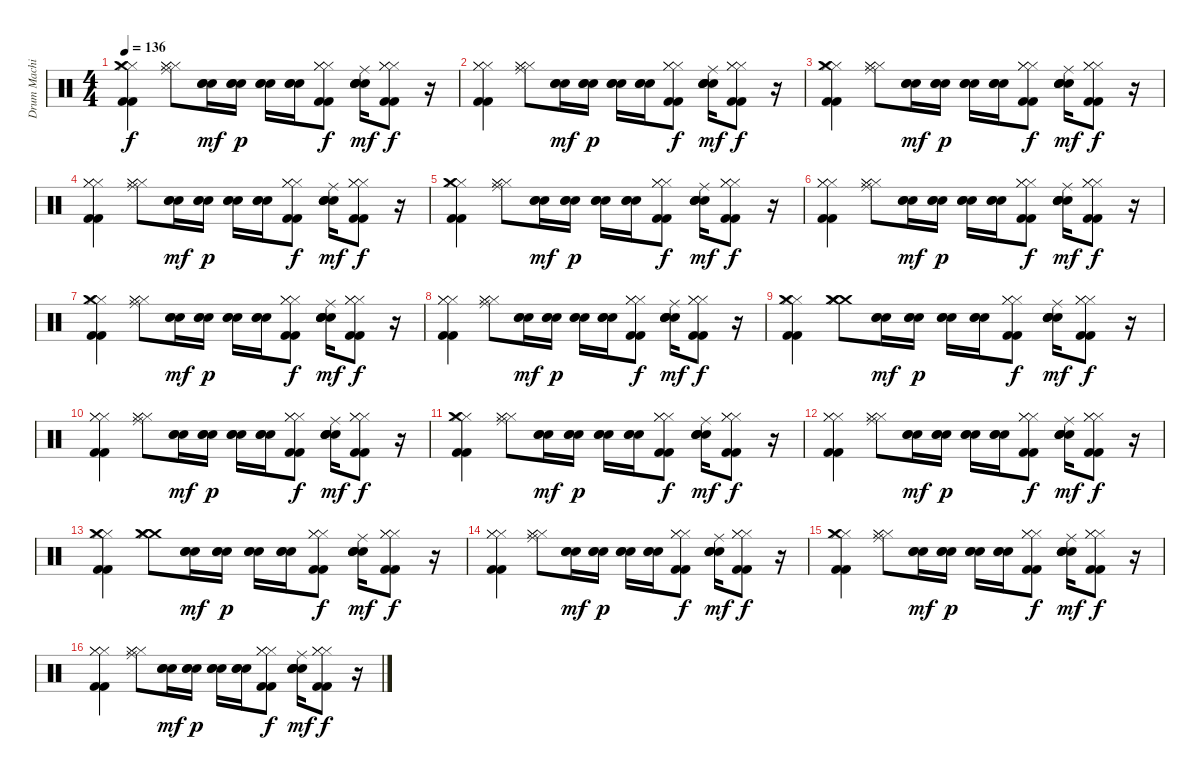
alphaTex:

\track ("Drum Machine" "Drum Machi") {instrument percussion}
\staff {score}
\articulation defaults
\ts (4 4)
\tempo 136
\clef neutral
\ks c
("Hi-Hat (closed)" "Kick (hit) 2" "Crash medium (hit)" "Kick (hit) 2" "Hi-Hat (closed)").4{dy f} ("Ride (middle)" "Hi-Hat (closed)" "Hi-Hat (closed)" "Hi-Hat (closed)").8 ("Electric Snare (hit)" "Electric Snare (hit)" "Electric Snare (hit)").16{dy mf} ("Snare (hit) 2" "Snare (hit) 2" "Snare (hit) 2").16{dy p} ("Electric Snare (hit)" "Electric Snare (hit)" "Electric Snare (hit)").16 ("Snare (hit) 2" "Snare (hit) 2" "Snare (hit) 2").16 ("Hi-Hat (closed)" "Kick (hit) 2" "Hi-Hat (closed)" "Kick (hit) 2" "Hi-Hat (closed)").8{dy f} ("Ride (middle)" "Electric Snare (hit)" "Snare (hit) 2" "Electric Snare (hit)" "Snare (hit) 2").16{dy mf} ("Hi-Hat (closed)" "Kick (hit) 2" "Hi-Hat (closed)" "Kick (hit) 2" "Hi-Hat (closed)").8{dy f} r.16 |
("Hi-Hat (closed)" "Kick (hit) 2" "Hi-Hat (closed)" "Kick (hit) 2" "Hi-Hat (closed)").4 ("Ride (middle)" "Hi-Hat (closed)" "Hi-Hat (closed)" "Hi-Hat (closed)").8 ("Electric Snare (hit)" "Electric Snare (hit)" "Electric Snare (hit)").16{dy mf} ("Snare (hit) 2" "Snare (hit) 2" "Snare (hit) 2").16{dy p} ("Electric Snare (hit)" "Electric Snare (hit)" "Electric Snare (hit)").16 ("Snare (hit) 2" "Snare (hit) 2" "Snare (hit) 2").16 ("Hi-Hat (closed)" "Kick (hit) 2" "Hi-Hat (closed)" "Kick (hit) 2" "Hi-Hat (closed)").8{dy f} ("Ride (middle)" "Electric Snare (hit)" "Snare (hit) 2" "Electric Snare (hit)" "Snare (hit) 2").16{dy mf} ("Hi-Hat (closed)" "Kick (hit) 2" "Hi-Hat (closed)" "Kick (hit) 2" "Hi-Hat (closed)").8{dy f} r.16 |
("Hi-Hat (closed)" "Kick (hit) 2" "Crash medium (hit)" "Kick (hit) 2" "Hi-Hat (closed)").4 ("Ride (middle)" "Hi-Hat (closed)" "Hi-Hat (closed)" "Hi-Hat (closed)").8 ("Electric Snare (hit)" "Electric Snare (hit)" "Electric Snare (hit)").16{dy mf} ("Snare (hit) 2" "Snare (hit) 2" "Snare (hit) 2").16{dy p} ("Electric Snare (hit)" "Electric Snare (hit)" "Electric Snare (hit)").16 ("Snare (hit) 2" "Snare (hit) 2" "Snare (hit) 2").16 ("Hi-Hat (closed)" "Kick (hit) 2" "Hi-Hat (closed)" "Kick (hit) 2" "Hi-Hat (closed)").8{dy f} ("Ride (middle)" "Electric Snare (hit)" "Snare (hit) 2" "Electric Snare (hit)" "Snare (hit) 2").16{dy mf} ("Hi-Hat (closed)" "Kick (hit) 2" "Hi-Hat (closed)" "Kick (hit) 2" "Hi-Hat (closed)").8{dy f} r.16 |
("Hi-Hat (closed)" "Kick (hit) 2" "Hi-Hat (closed)" "Kick (hit) 2" "Hi-Hat (closed)").4 ("Ride (middle)" "Hi-Hat (closed)" "Hi-Hat (closed)" "Hi-Hat (closed)").8 ("Electric Snare (hit)" "Electric Snare (hit)" "Electric Snare (hit)").16{dy mf} ("Snare (hit) 2" "Snare (hit) 2" "Snare (hit) 2").16{dy p} ("Electric Snare (hit)" "Electric Snare (hit)" "Electric Snare (hit)").16 ("Snare (hit) 2" "Snare (hit) 2" "Snare (hit) 2").16 ("Hi-Hat (closed)" "Kick (hit) 2" "Hi-Hat (closed)" "Kick (hit) 2" "Hi-Hat (closed)").8{dy f} ("Ride (middle)" "Electric Snare (hit)" "Snare (hit) 2" "Electric Snare (hit)" "Snare (hit) 2").16{dy mf} ("Hi-Hat (closed)" "Kick (hit) 2" "Hi-Hat (closed)" "Kick (hit) 2" "Hi-Hat (closed)").8{dy f} r.16 |
("Hi-Hat (closed)" "Kick (hit) 2" "Crash medium (hit)" "Kick (hit) 2" "Hi-Hat (closed)").4 ("Ride (middle)" "Hi-Hat (closed)" "Hi-Hat (closed)" "Hi-Hat (closed)").8 ("Electric Snare (hit)" "Electric Snare (hit)" "Electric Snare (hit)").16{dy mf} ("Snare (hit) 2" "Snare (hit) 2" "Snare (hit) 2").16{dy p} ("Electric Snare (hit)" "Electric Snare (hit)" "Electric Snare (hit)").16 ("Snare (hit) 2" "Snare (hit) 2" "Snare (hit) 2").16 ("Hi-Hat (closed)" "Kick (hit) 2" "Hi-Hat (closed)" "Kick (hit) 2" "Hi-Hat (closed)").8{dy f} ("Ride (middle)" "Electric Snare (hit)" "Snare (hit) 2" "Electric Snare (hit)" "Snare (hit) 2").16{dy mf} ("Hi-Hat (closed)" "Kick (hit) 2" "Hi-Hat (closed)" "Kick (hit) 2" "Hi-Hat (closed)").8{dy f} r.16 |
("Hi-Hat (closed)" "Kick (hit) 2" "Hi-Hat (closed)" "Kick (hit) 2" "Hi-Hat (closed)").4 ("Ride (middle)" "Hi-Hat (closed)" "Hi-Hat (closed)" "Hi-Hat (closed)").8 ("Electric Snare (hit)" "Electric Snare (hit)" "Electric Snare (hit)").16{dy mf} ("Snare (hit) 2" "Snare (hit) 2" "Snare (hit) 2").16{dy p} ("Electric Snare (hit)" "Electric Snare (hit)" "Electric Snare (hit)").16 ("Snare (hit) 2" "Snare (hit) 2" "Snare (hit) 2").16 ("Hi-Hat (closed)" "Kick (hit) 2" "Hi-Hat (closed)" "Kick (hit) 2" "Hi-Hat (closed)").8{dy f} ("Ride (middle)" "Electric Snare (hit)" "Snare (hit) 2" "Electric Snare (hit)" "Snare (hit) 2").16{dy mf} ("Hi-Hat (closed)" "Kick (hit) 2" "Hi-Hat (closed)" "Kick (hit) 2" "Hi-Hat (closed)").8{dy f} r.16 |
("Hi-Hat (closed)" "Kick (hit) 2" "Crash medium (hit)" "Kick (hit) 2" "Hi-Hat (closed)").4 ("Ride (middle)" "Hi-Hat (closed)" "Hi-Hat (closed)" "Hi-Hat (closed)").8 ("Electric Snare (hit)" "Electric Snare (hit)" "Electric Snare (hit)").16{dy mf} ("Snare (hit) 2" "Snare (hit) 2" "Snare (hit) 2").16{dy p} ("Electric Snare (hit)" "Electric Snare (hit)" "Electric Snare (hit)").16 ("Snare (hit) 2" "Snare (hit) 2" "Snare (hit) 2").16 ("Hi-Hat (closed)" "Kick (hit) 2" "Hi-Hat (closed)" "Kick (hit) 2" "Hi-Hat (closed)").8{dy f} ("Ride (middle)" "Electric Snare (hit)" "Snare (hit) 2" "Electric Snare (hit)" "Snare (hit) 2").16{dy mf} ("Hi-Hat (closed)" "Kick (hit) 2" "Hi-Hat (closed)" "Kick (hit) 2" "Hi-Hat (closed)").8{dy f} r.16 |
("Hi-Hat (closed)" "Kick (hit) 2" "Hi-Hat (closed)" "Kick (hit) 2" "Hi-Hat (closed)").4 ("Ride (middle)" "Hi-Hat (closed)" "Hi-Hat (closed)" "Hi-Hat (closed)").8 ("Electric Snare (hit)" "Electric Snare (hit)" "Electric Snare (hit)").16{dy mf} ("Snare (hit) 2" "Snare (hit) 2" "Snare (hit) 2").16{dy p} ("Electric Snare (hit)" "Electric Snare (hit)" "Electric Snare (hit)").16 ("Snare (hit) 2" "Snare (hit) 2" "Snare (hit) 2").16 ("Hi-Hat (closed)" "Kick (hit) 2" "Hi-Hat (closed)" "Kick (hit) 2" "Hi-Hat (closed)").8{dy f} ("Ride (middle)" "Electric Snare (hit)" "Snare (hit) 2" "Electric Snare (hit)" "Snare (hit) 2").16{dy mf} ("Hi-Hat (closed)" "Kick (hit) 2" "Hi-Hat (closed)" "Kick (hit) 2" "Hi-Hat (closed)").8{dy f} r.16 |
("Hi-Hat (closed)" "Kick (hit) 2" "Crash medium (hit)" "Kick (hit) 2" "Hi-Hat (closed)").4 ("Crash medium (hit)" "Hi-Hat (closed)" "Hi-Hat (closed)" "Hi-Hat (closed)" "Crash medium (hit)").8 ("Electric Snare (hit)" "Electric Snare (hit)" "Electric Snare (hit)").16{dy mf} ("Snare (hit) 2" "Snare (hit) 2" "Snare (hit) 2").16{dy p} ("Electric Snare (hit)" "Electric Snare (hit)" "Electric Snare (hit)").16 ("Snare (hit) 2" "Snare (hit) 2" "Snare (hit) 2").16 ("Hi-Hat (closed)" "Kick (hit) 2" "Hi-Hat (closed)" "Kick (hit) 2" "Hi-Hat (closed)").8{dy f} ("Ride (middle)" "Electric Snare (hit)" "Snare (hit) 2" "Electric Snare (hit)" "Snare (hit) 2").16{dy mf} ("Hi-Hat (closed)" "Kick (hit) 2" "Hi-Hat (closed)" "Kick (hit) 2" "Hi-Hat (closed)").8{dy f} r.16 |
("Hi-Hat (closed)" "Kick (hit) 2" "Hi-Hat (closed)" "Kick (hit) 2" "Hi-Hat (closed)").4 ("Ride (middle)" "Hi-Hat (closed)" "Hi-Hat (closed)" "Hi-Hat (closed)").8 ("Electric Snare (hit)" "Electric Snare (hit)" "Electric Snare (hit)").16{dy mf} ("Snare (hit) 2" "Snare (hit) 2" "Snare (hit) 2").16{dy p} ("Electric Snare (hit)" "Electric Snare (hit)" "Electric Snare (hit)").16 ("Snare (hit) 2" "Snare (hit) 2" "Snare (hit) 2").16 ("Hi-Hat (closed)" "Kick (hit) 2" "Hi-Hat (closed)" "Kick (hit) 2" "Hi-Hat (closed)").8{dy f} ("Ride (middle)" "Electric Snare (hit)" "Snare (hit) 2" "Electric Snare (hit)" "Snare (hit) 2").16{dy mf} ("Hi-Hat (closed)" "Kick (hit) 2" "Hi-Hat (closed)" "Kick (hit) 2" "Hi-Hat (closed)").8{dy f} r.16 |
("Hi-Hat (closed)" "Kick (hit) 2" "Crash medium (hit)" "Kick (hit) 2" "Hi-Hat (closed)").4 ("Ride (middle)" "Hi-Hat (closed)" "Hi-Hat (closed)" "Hi-Hat (closed)").8 ("Electric Snare (hit)" "Electric Snare (hit)" "Electric Snare (hit)").16{dy mf} ("Snare (hit) 2" "Snare (hit) 2" "Snare (hit) 2").16{dy p} ("Electric Snare (hit)" "Electric Snare (hit)" "Electric Snare (hit)").16 ("Snare (hit) 2" "Snare (hit) 2" "Snare (hit) 2").16 ("Hi-Hat (closed)" "Kick (hit) 2" "Hi-Hat (closed)" "Kick (hit) 2" "Hi-Hat (closed)").8{dy f} ("Ride (middle)" "Electric Snare (hit)" "Snare (hit) 2" "Electric Snare (hit)" "Snare (hit) 2").16{dy mf} ("Hi-Hat (closed)" "Kick (hit) 2" "Hi-Hat (closed)" "Kick (hit) 2" "Hi-Hat (closed)").8{dy f} r.16 |
("Hi-Hat (closed)" "Kick (hit) 2" "Hi-Hat (closed)" "Kick (hit) 2" "Hi-Hat (closed)").4 ("Ride (middle)" "Hi-Hat (closed)" "Hi-Hat (closed)" "Hi-Hat (closed)").8 ("Electric Snare (hit)" "Electric Snare (hit)" "Electric Snare (hit)").16{dy mf} ("Snare (hit) 2" "Snare (hit) 2" "Snare (hit) 2").16{dy p} ("Electric Snare (hit)" "Electric Snare (hit)" "Electric Snare (hit)").16 ("Snare (hit) 2" "Snare (hit) 2" "Snare (hit) 2").16 ("Hi-Hat (closed)" "Kick (hit) 2" "Hi-Hat (closed)" "Kick (hit) 2" "Hi-Hat (closed)").8{dy f} ("Ride (middle)" "Electric Snare (hit)" "Snare (hit) 2" "Electric Snare (hit)" "Snare (hit) 2").16{dy mf} ("Hi-Hat (closed)" "Kick (hit) 2" "Hi-Hat (closed)" "Kick (hit) 2" "Hi-Hat (closed)").8{dy f} r.16 |
("Hi-Hat (closed)" "Kick (hit) 2" "Crash medium (hit)" "Kick (hit) 2" "Hi-Hat (closed)").4 ("Crash medium (hit)" "Hi-Hat (closed)" "Hi-Hat (closed)" "Crash medium (hit)").8 ("Electric Snare (hit)" "Electric Snare (hit)" "Electric Snare (hit)").16{dy mf} ("Snare (hit) 2" "Snare (hit) 2" "Snare (hit) 2").16{dy p} ("Electric Snare (hit)" "Electric Snare (hit)" "Electric Snare (hit)").16 ("Snare (hit) 2" "Snare (hit) 2" "Snare (hit) 2").16 ("Hi-Hat (closed)" "Kick (hit) 2" "Hi-Hat (closed)" "Kick (hit) 2" "Hi-Hat (closed)").8{dy f} ("Ride (middle)" "Electric Snare (hit)" "Snare (hit) 2" "Electric Snare (hit)" "Snare (hit) 2").16{dy mf} ("Hi-Hat (closed)" "Kick (hit) 2" "Hi-Hat (closed)" "Kick (hit) 2" "Hi-Hat (closed)").8{dy f} r.16 |
("Hi-Hat (closed)" "Kick (hit) 2" "Hi-Hat (closed)" "Kick (hit) 2" "Hi-Hat (closed)").4 ("Ride (middle)" "Hi-Hat (closed)" "Hi-Hat (closed)" "Hi-Hat (closed)").8 ("Electric Snare (hit)" "Electric Snare (hit)" "Electric Snare (hit)").16{dy mf} ("Snare (hit) 2" "Snare (hit) 2" "Snare (hit) 2").16{dy p} ("Electric Snare (hit)" "Electric Snare (hit)" "Electric Snare (hit)").16 ("Snare (hit) 2" "Snare (hit) 2" "Snare (hit) 2").16 ("Hi-Hat (closed)" "Kick (hit) 2" "Hi-Hat (closed)" "Kick (hit) 2" "Hi-Hat (closed)").8{dy f} ("Ride (middle)" "Electric Snare (hit)" "Snare (hit) 2" "Electric Snare (hit)" "Snare (hit) 2").16{dy mf} ("Hi-Hat (closed)" "Kick (hit) 2" "Hi-Hat (closed)" "Kick (hit) 2" "Hi-Hat (closed)").8{dy f} r.16 |
("Hi-Hat (closed)" "Kick (hit) 2" "Crash medium (hit)" "Kick (hit) 2" "Hi-Hat (closed)").4 ("Ride (middle)" "Hi-Hat (closed)" "Hi-Hat (closed)" "Hi-Hat (closed)").8 ("Electric Snare (hit)" "Electric Snare (hit)" "Electric Snare (hit)").16{dy mf} ("Snare (hit) 2" "Snare (hit) 2" "Snare (hit) 2").16{dy p} ("Electric Snare (hit)" "Electric Snare (hit)" "Electric Snare (hit)").16 ("Snare (hit) 2" "Snare (hit) 2" "Snare (hit) 2").16 ("Hi-Hat (closed)" "Kick (hit) 2" "Hi-Hat (closed)" "Kick (hit) 2" "Hi-Hat (closed)").8{dy f} ("Ride (middle)" "Electric Snare (hit)" "Snare (hit) 2" "Electric Snare (hit)" "Snare (hit) 2").16{dy mf} ("Hi-Hat (closed)" "Kick (hit) 2" "Hi-Hat (closed)" "Kick (hit) 2" "Hi-Hat (closed)").8{dy f} r.16 |
("Hi-Hat (closed)" "Kick (hit) 2" "Hi-Hat (closed)" "Kick (hit) 2" "Hi-Hat (closed)").4 ("Ride (middle)" "Hi-Hat (closed)" "Hi-Hat (closed)" "Hi-Hat (closed)").8 ("Electric Snare (hit)" "Electric Snare (hit)" "Electric Snare (hit)").16{dy mf} ("Snare (hit) 2" "Snare (hit) 2" "Snare (hit) 2").16{dy p} ("Electric Snare (hit)" "Electric Snare (hit)" "Electric Snare (hit)").16 ("Snare (hit) 2" "Snare (hit) 2" "Snare (hit) 2").16 ("Hi-Hat (closed)" "Kick (hit) 2" "Hi-Hat (closed)" "Kick (hit) 2" "Hi-Hat (closed)").8{dy f} ("Ride (middle)" "Electric Snare (hit)" "Snare (hit) 2" "Electric Snare (hit)" "Snare (hit) 2").16{dy mf} ("Hi-Hat (closed)" "Kick (hit) 2" "Hi-Hat (closed)" "Kick (hit) 2" "Hi-Hat (closed)").8{dy f} r.16
